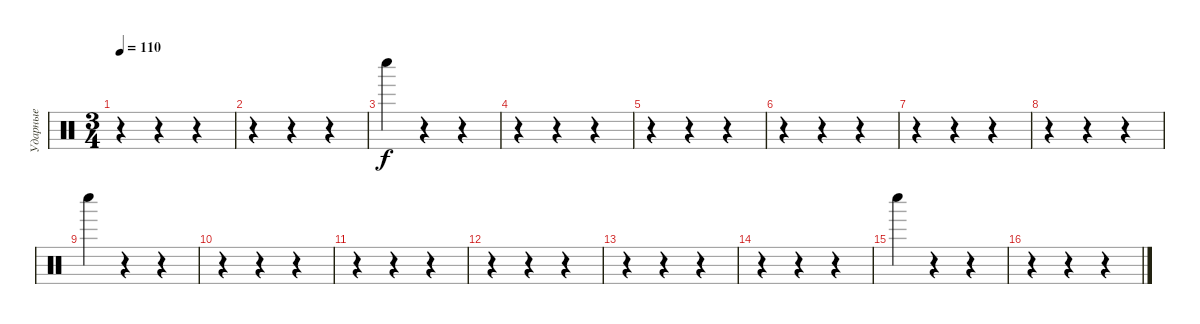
\track ("Ударные" "Ударные") {instrument percussion}
\staff {score}
\articulation defaults
\ts (3 4)
\tempo 110
\clef neutral
\ks c
r.4{dy f} r.4 r.4 |
r.4 r.4 r.4 |
"Whistle low (hit)".4 r.4 r.4 |
r.4 r.4 r.4 |
r.4 r.4 r.4 |
r.4 r.4 r.4 |
r.4 r.4 r.4 |
r.4 r.4 r.4 |
"Whistle low (hit)".4 r.4 r.4 |
r.4 r.4 r.4 |
r.4 r.4 r.4 |
r.4 r.4 r.4 |
r.4 r.4 r.4 |
r.4 r.4 r.4 |
"Whistle low (hit)".4 r.4 r.4 |
r.4 r.4 r.4
